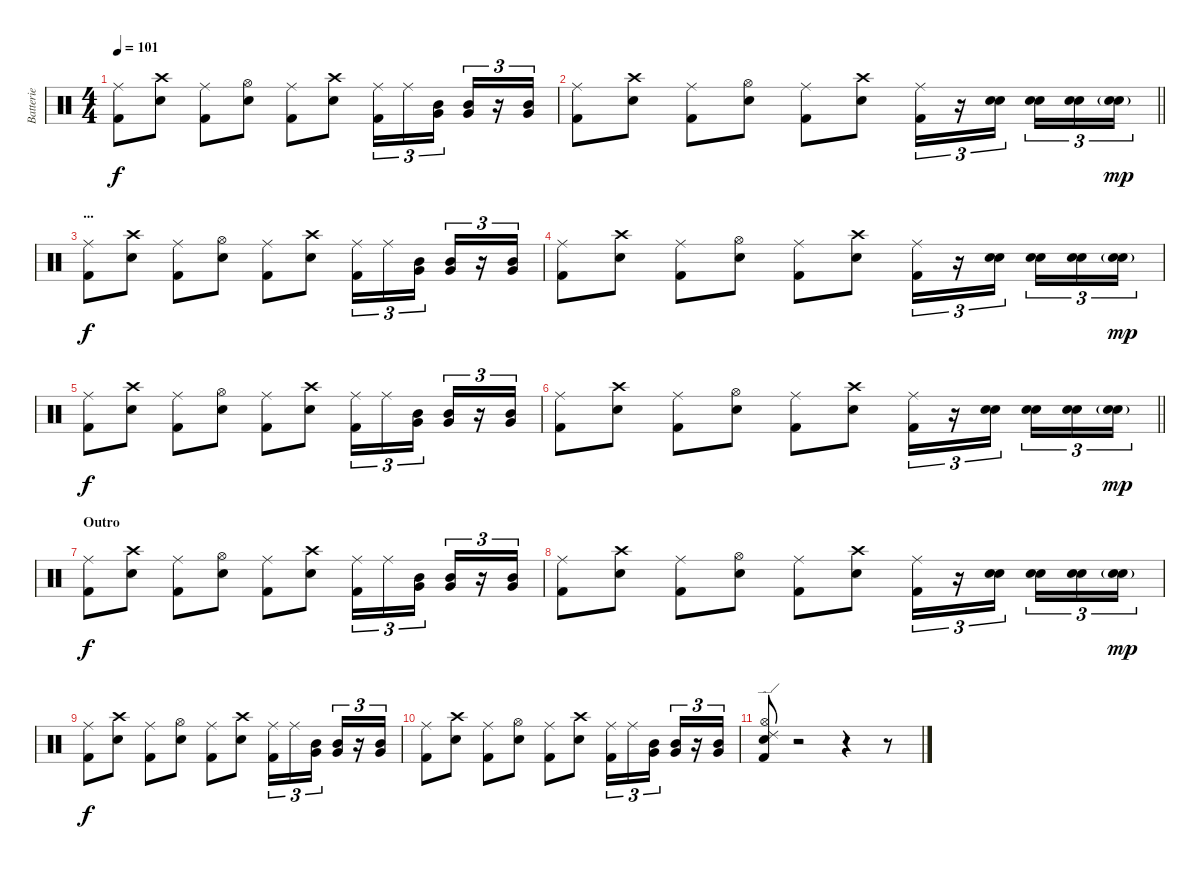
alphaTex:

\track ("Batterie" "Batterie") {instrument percussion}
\staff {score}
\articulation defaults
\ts (4 4)
\tempo 101
\clef neutral
\ks c
("Ride (middle)" "Kick (hit) 2").8{dy f} ("Crash high (hit)" "Electric Snare (hit)").8 ("Ride (middle)" "Kick (hit) 2").8 ("Hi-Hat (open)" "Electric Snare (hit)").8 ("Ride (middle)" "Kick (hit) 2").8 ("Crash high (hit)" "Electric Snare (hit)").8 ("Ride (middle)" "Kick (hit) 2").16{tu (3 2)} "Ride (middle)".16{tu (3 2)} ("Very Low Tom (hit)" "Mid Tom (hit)").16{tu (3 2) beam splitsecondary} ("Very Low Tom (hit)" "Mid Tom (hit)").16{tu (3 2)} r.16{tu (3 2)} ("Very Low Tom (hit)" "Mid Tom (hit)").16{tu (3 2)} |
\barLineRight lightlight
("Ride (middle)" "Kick (hit) 2").8 ("Crash high (hit)" "Electric Snare (hit)").8 ("Ride (middle)" "Kick (hit) 2").8 ("Hi-Hat (open)" "Electric Snare (hit)").8 ("Ride (middle)" "Kick (hit) 2").8 ("Crash high (hit)" "Electric Snare (hit)").8 ("Ride (middle)" "Kick (hit) 2").16{tu (3 2)} r.16{tu (3 2)} ("Snare (hit) 2" "Electric Snare (hit)").16{tu (3 2) beam splitsecondary} ("Snare (hit) 2" "Electric Snare (hit)").16{tu (3 2)} ("Snare (hit) 2" "Electric Snare (hit)").16{tu (3 2)} ("Snare (hit) 2"{g} "Electric Snare (hit)"{g}).16{tu (3 2) dy mp} |
\section ("" "...")
("Ride (middle)" "Kick (hit) 2").8{dy f} ("Crash high (hit)" "Electric Snare (hit)").8 ("Ride (middle)" "Kick (hit) 2").8 ("Hi-Hat (open)" "Electric Snare (hit)").8 ("Ride (middle)" "Kick (hit) 2").8 ("Crash high (hit)" "Electric Snare (hit)").8 ("Ride (middle)" "Kick (hit) 2").16{tu (3 2)} "Ride (middle)".16{tu (3 2)} ("Very Low Tom (hit)" "Mid Tom (hit)").16{tu (3 2) beam splitsecondary} ("Very Low Tom (hit)" "Mid Tom (hit)").16{tu (3 2)} r.16{tu (3 2)} ("Very Low Tom (hit)" "Mid Tom (hit)").16{tu (3 2)} |
("Ride (middle)" "Kick (hit) 2").8 ("Crash high (hit)" "Electric Snare (hit)").8 ("Ride (middle)" "Kick (hit) 2").8 ("Hi-Hat (open)" "Electric Snare (hit)").8 ("Ride (middle)" "Kick (hit) 2").8 ("Crash high (hit)" "Electric Snare (hit)").8 ("Ride (middle)" "Kick (hit) 2").16{tu (3 2)} r.16{tu (3 2)} ("Snare (hit) 2" "Electric Snare (hit)").16{tu (3 2) beam splitsecondary} ("Snare (hit) 2" "Electric Snare (hit)").16{tu (3 2)} ("Snare (hit) 2" "Electric Snare (hit)").16{tu (3 2)} ("Snare (hit) 2"{g} "Electric Snare (hit)"{g}).16{tu (3 2) dy mp} |
("Ride (middle)" "Kick (hit) 2").8{dy f} ("Crash high (hit)" "Electric Snare (hit)").8 ("Ride (middle)" "Kick (hit) 2").8 ("Hi-Hat (open)" "Electric Snare (hit)").8 ("Ride (middle)" "Kick (hit) 2").8 ("Crash high (hit)" "Electric Snare (hit)").8 ("Ride (middle)" "Kick (hit) 2").16{tu (3 2)} "Ride (middle)".16{tu (3 2)} ("Very Low Tom (hit)" "Mid Tom (hit)").16{tu (3 2) beam splitsecondary} ("Very Low Tom (hit)" "Mid Tom (hit)").16{tu (3 2)} r.16{tu (3 2)} ("Very Low Tom (hit)" "Mid Tom (hit)").16{tu (3 2)} |
\barLineRight lightlight
("Ride (middle)" "Kick (hit) 2").8 ("Crash high (hit)" "Electric Snare (hit)").8 ("Ride (middle)" "Kick (hit) 2").8 ("Hi-Hat (open)" "Electric Snare (hit)").8 ("Ride (middle)" "Kick (hit) 2").8 ("Crash high (hit)" "Electric Snare (hit)").8 ("Ride (middle)" "Kick (hit) 2").16{tu (3 2)} r.16{tu (3 2)} ("Snare (hit) 2" "Electric Snare (hit)").16{tu (3 2) beam splitsecondary} ("Snare (hit) 2" "Electric Snare (hit)").16{tu (3 2)} ("Snare (hit) 2" "Electric Snare (hit)").16{tu (3 2)} ("Snare (hit) 2"{g} "Electric Snare (hit)"{g}).16{tu (3 2) dy mp} |
\section ("" "Outro")
("Ride (middle)" "Kick (hit) 2").8{dy f} ("Crash high (hit)" "Electric Snare (hit)").8 ("Ride (middle)" "Kick (hit) 2").8 ("Hi-Hat (open)" "Electric Snare (hit)").8 ("Ride (middle)" "Kick (hit) 2").8 ("Crash high (hit)" "Electric Snare (hit)").8 ("Ride (middle)" "Kick (hit) 2").16{tu (3 2)} "Ride (middle)".16{tu (3 2)} ("Very Low Tom (hit)" "Mid Tom (hit)").16{tu (3 2) beam splitsecondary} ("Very Low Tom (hit)" "Mid Tom (hit)").16{tu (3 2)} r.16{tu (3 2)} ("Very Low Tom (hit)" "Mid Tom (hit)").16{tu (3 2)} |
("Ride (middle)" "Kick (hit) 2").8 ("Crash high (hit)" "Electric Snare (hit)").8 ("Ride (middle)" "Kick (hit) 2").8 ("Hi-Hat (open)" "Electric Snare (hit)").8 ("Ride (middle)" "Kick (hit) 2").8 ("Crash high (hit)" "Electric Snare (hit)").8 ("Ride (middle)" "Kick (hit) 2").16{tu (3 2)} r.16{tu (3 2)} ("Snare (hit) 2" "Electric Snare (hit)").16{tu (3 2) beam splitsecondary} ("Snare (hit) 2" "Electric Snare (hit)").16{tu (3 2)} ("Snare (hit) 2" "Electric Snare (hit)").16{tu (3 2)} ("Snare (hit) 2"{g} "Electric Snare (hit)"{g}).16{tu (3 2) dy mp} |
("Ride (middle)" "Kick (hit) 2").8{dy f} ("Crash high (hit)" "Electric Snare (hit)").8 ("Ride (middle)" "Kick (hit) 2").8 ("Hi-Hat (open)" "Electric Snare (hit)").8 ("Ride (middle)" "Kick (hit) 2").8 ("Crash high (hit)" "Electric Snare (hit)").8 ("Ride (middle)" "Kick (hit) 2").16{tu (3 2)} "Ride (middle)".16{tu (3 2)} ("Very Low Tom (hit)" "Mid Tom (hit)").16{tu (3 2) beam splitsecondary} ("Very Low Tom (hit)" "Mid Tom (hit)").16{tu (3 2)} r.16{tu (3 2)} ("Very Low Tom (hit)" "Mid Tom (hit)").16{tu (3 2)} |
("Ride (middle)" "Kick (hit) 2").8 ("Crash high (hit)" "Electric Snare (hit)").8 ("Ride (middle)" "Kick (hit) 2").8 ("Hi-Hat (open)" "Electric Snare (hit)").8 ("Ride (middle)" "Kick (hit) 2").8 ("Crash high (hit)" "Electric Snare (hit)").8 ("Ride (middle)" "Kick (hit) 2").16{tu (3 2)} "Ride (middle)".16{tu (3 2)} ("Very Low Tom (hit)" "Mid Tom (hit)").16{tu (3 2) beam splitsecondary} ("Very Low Tom (hit)" "Mid Tom (hit)").16{tu (3 2)} r.16{tu (3 2)} ("Very Low Tom (hit)" "Mid Tom (hit)").16{tu (3 2)} |
("Hi-Hat (open)" "Ride (edge) 2" "Electric Snare (hit)" "Kick (hit) 2").8 r.2 r.4 r.8
